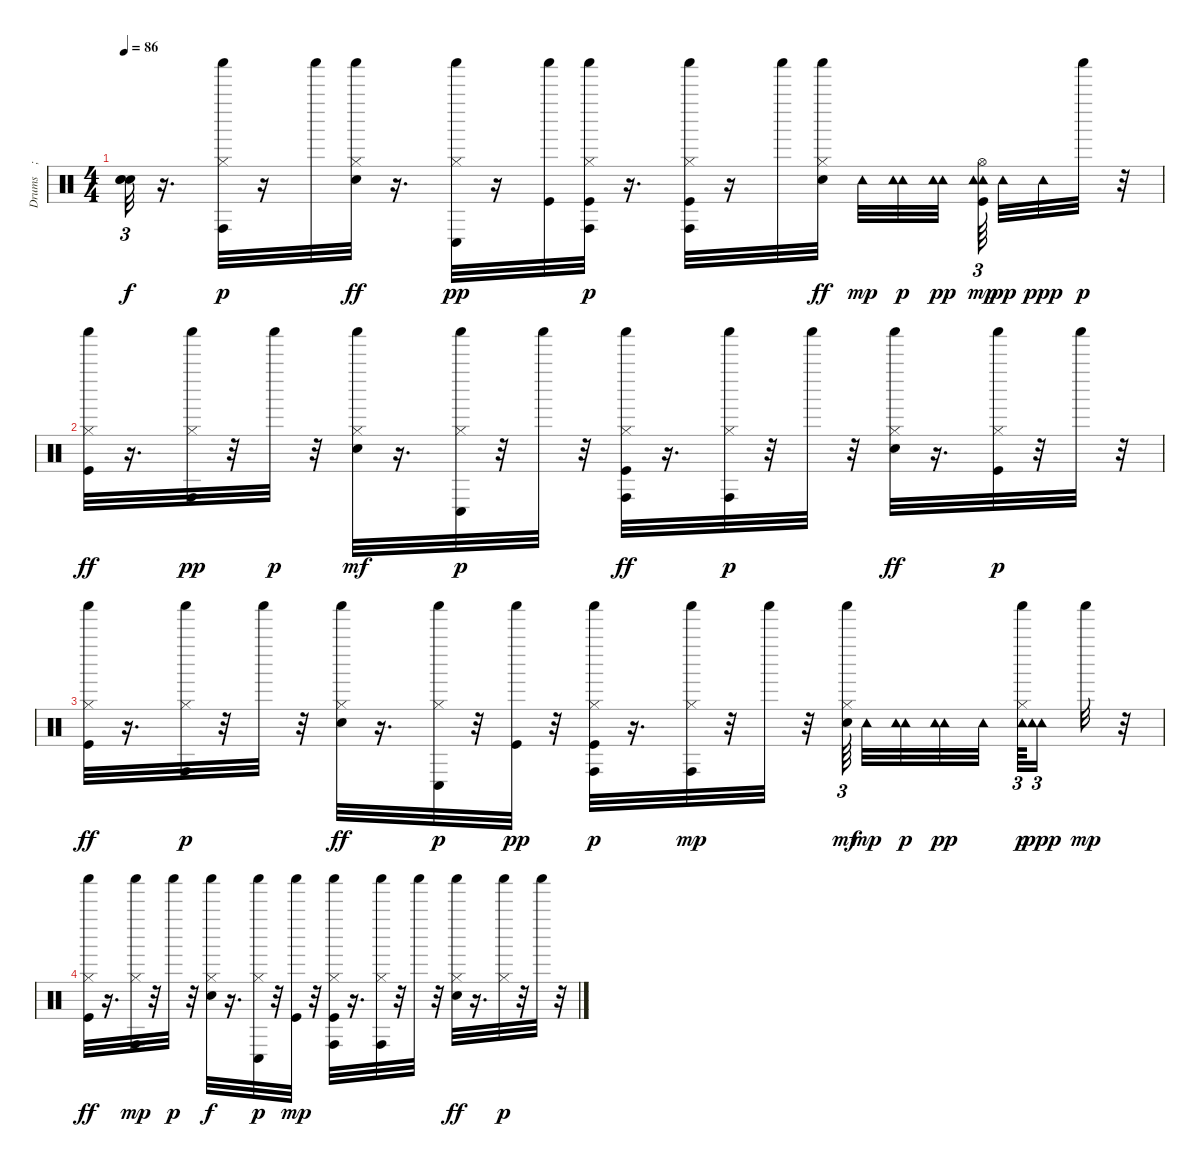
\track ("Drums    ; Standard" "Drums    ;") {instrument percussion}
\staff {score}
\articulation defaults
\ts (4 4)
\tempo 86
\clef neutral
\ks c
("Snare (hit)"{t} "Snare (hit)"{t} "Snare (hit)"{t}).32{tu (3 2) dy f} r.16{d} ("Shaker (hit)" "Conga high (hit)" "Hi-Hat (closed)").32{dy p} r.16 "Shaker (hit)".32 ("Electric Snare (hit)" "Shaker (hit)" "Hi-Hat (closed)").32{dy ff} r.16{d} ("Shaker (hit)" "Conga low (hit)" "Hi-Hat (closed)").32{dy pp} r.16 ("Shaker (hit)" "Kick (hit)").32 ("Kick (hit)" "Shaker (hit)" "Hi-Hat (closed)" "Conga high (hit)").32{dy p} r.16{d} ("Kick (hit)" "Hi-Hat (closed)" "Shaker (hit)" "Conga high (hit)").32 r.16 "Shaker (hit)".32 ("Electric Snare (hit)" "Hi-Hat (closed)" "Shaker (hit)").32{dy ff} "Tambourine (hit)".32{dy mp} ("Tambourine (hit)" "Tambourine (hit)").32{dy p} ("Tambourine (hit)" "Tambourine (hit)").32{dy pp} ("Tambourine (hit)" "Tambourine (hit)" "Hi-Hat (open)" "Kick (hit)").64{tu (3 2) dy mp} "Tambourine (hit)".32{dy pp} "Tambourine (hit)".32{dy ppp} "Shaker (hit)".32{dy p} r.32 |
("Shaker (hit)" "Kick (hit)" "Hi-Hat (closed)").32{dy ff} r.16{d} ("Hi-Hat (closed)" "Conga high (hit)" "Shaker (hit)").32{dy pp} r.32 "Shaker (hit)".32{dy p} r.32 ("Electric Snare (hit)" "Shaker (hit)" "Hi-Hat (closed)").32{dy mf} r.16{d} ("Conga low (hit)" "Shaker (hit)" "Hi-Hat (closed)").32{dy p} r.32 "Shaker (hit)".32 r.32 ("Conga high (hit)" "Kick (hit)" "Shaker (hit)" "Hi-Hat (closed)").32{dy ff} r.16{d} ("Conga high (hit)" "Shaker (hit)" "Hi-Hat (closed)").32{dy p} r.32 "Shaker (hit)".32 r.32 ("Electric Snare (hit)" "Shaker (hit)" "Hi-Hat (closed)").32{dy ff} r.16{d} ("Kick (hit)" "Shaker (hit)" "Hi-Hat (closed)").32{dy p} r.32 "Shaker (hit)".32 r.32 |
("Kick (hit)" "Shaker (hit)" "Hi-Hat (closed)").32{dy ff} r.16{d} ("Shaker (hit)" "Conga high (hit)" "Hi-Hat (closed)").32{dy p} r.32 "Shaker (hit)".32 r.32 ("Electric Snare (hit)" "Shaker (hit)" "Hi-Hat (closed)").32{dy ff} r.16{d} ("Conga low (hit)" "Shaker (hit)" "Hi-Hat (closed)").32{dy p} r.32 ("Shaker (hit)" "Kick (hit)").32{dy pp} r.32 ("Kick (hit)" "Shaker (hit)" "Conga high (hit)" "Hi-Hat (closed)").32{dy p} r.16{d} ("Shaker (hit)" "Hi-Hat (closed)" "Conga high (hit)").32{dy mp} r.32 "Shaker (hit)".32 r.32 ("Shaker (hit)" "Electric Snare (hit)" "Hi-Hat (closed)").64{tu (3 2) dy mf} "Tambourine (hit)".32{dy mp} ("Tambourine (hit)" "Tambourine (hit)").32{dy p} ("Tambourine (hit)" "Tambourine (hit)").32{dy pp} "Tambourine (hit)".32 ("Tambourine (hit)" "Hi-Hat (closed)" "Shaker (hit)").64{tu (3 2) dy p} ("Tambourine (hit)" "Tambourine (hit)").16{tu (3 2) dy ppp} "Shaker (hit)".32{dy mp} r.32 |
("Kick (hit)" "Shaker (hit)" "Hi-Hat (closed)").32{dy ff} r.16{d} ("Shaker (hit)" "Conga high (hit)" "Hi-Hat (closed)").32{dy mp} r.32 "Shaker (hit)".32{dy p} r.32 ("Electric Snare (hit)" "Shaker (hit)" "Hi-Hat (closed)").32{dy f} r.16{d} ("Shaker (hit)" "Conga low (hit)" "Hi-Hat (closed)").32{dy p} r.32 ("Shaker (hit)" "Kick (hit)").32{dy mp} r.32 ("Kick (hit)" "Shaker (hit)" "Conga high (hit)" "Hi-Hat (closed)").32 r.16{d} ("Shaker (hit)" "Hi-Hat (closed)" "Conga high (hit)").32 r.32 "Shaker (hit)".32 r.32 ("Electric Snare (hit)" "Shaker (hit)" "Hi-Hat (closed)").32{dy ff} r.16{d} ("Shaker (hit)" "Hi-Hat (closed)").32{dy p} r.32 "Shaker (hit)".32 r.32
